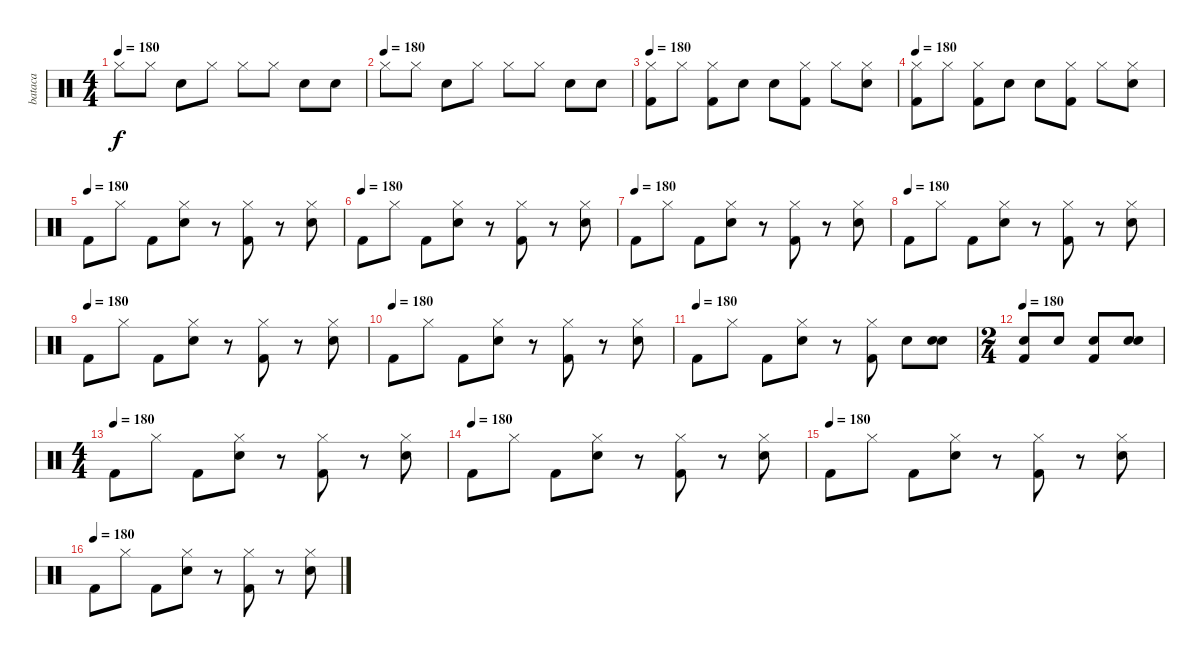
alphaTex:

\track ("bataca" "bataca") {instrument percussion}
\staff {score}
\articulation defaults
\ts (4 4)
\tempo 180
\clef neutral
\ks c "Hi-Hat (closed)".8{dy f} "Hi-Hat (closed)".8 "Snare (hit) 2".8 "Hi-Hat (closed)".8 "Hi-Hat (closed)".8 "Hi-Hat (closed)".8 "Snare (hit) 2".8 "Snare (hit) 2".8
|
\tempo (180)
"Hi-Hat (closed)".8 "Hi-Hat (closed)".8 "Snare (hit) 2".8 "Hi-Hat (closed)".8 "Hi-Hat (closed)".8 "Hi-Hat (closed)".8 "Snare (hit) 2".8 "Snare (hit) 2".8 |
\tempo 180
("Hi-Hat (closed)" "Kick (hit) 2").8 "Hi-Hat (closed)".8 ("Hi-Hat (closed)" "Kick (hit) 2").8 "Snare (hit) 2".8 "Snare (hit) 2".8 ("Hi-Hat (closed)" "Kick (hit) 2").8 "Hi-Hat (closed)".8 ("Hi-Hat (closed)" "Snare (hit) 2").8 |
\tempo 180
("Hi-Hat (closed)" "Kick (hit) 2").8 "Hi-Hat (closed)".8 ("Hi-Hat (closed)" "Kick (hit) 2").8 "Snare (hit) 2".8 "Snare (hit) 2".8 ("Hi-Hat (closed)" "Kick (hit) 2").8 "Hi-Hat (closed)".8 ("Hi-Hat (closed)" "Snare (hit) 2").8 |
\tempo (180)
"Kick (hit) 2".8 "Hi-Hat (closed)".8 "Kick (hit) 2".8 ("Hi-Hat (closed)" "Snare (hit) 2").8 r.8 ("Hi-Hat (closed)" "Kick (hit) 2").8 r.8 ("Hi-Hat (closed)" "Snare (hit) 2").8 |
\tempo (180)
"Kick (hit) 2".8 "Hi-Hat (closed)".8 "Kick (hit) 2".8 ("Hi-Hat (closed)" "Snare (hit) 2").8 r.8 ("Hi-Hat (closed)" "Kick (hit) 2").8 r.8 ("Hi-Hat (closed)" "Snare (hit) 2").8 |
\tempo (180)
"Kick (hit) 2".8 "Hi-Hat (closed)".8 "Kick (hit) 2".8 ("Hi-Hat (closed)" "Snare (hit) 2").8 r.8 ("Hi-Hat (closed)" "Kick (hit) 2").8 r.8 ("Hi-Hat (closed)" "Snare (hit) 2").8 |
\tempo (180)
"Kick (hit) 2".8 "Hi-Hat (closed)".8 "Kick (hit) 2".8 ("Hi-Hat (closed)" "Snare (hit) 2").8 r.8 ("Hi-Hat (closed)" "Kick (hit) 2").8 r.8 ("Hi-Hat (closed)" "Snare (hit) 2").8 |
\tempo (180)
"Kick (hit) 2".8 "Hi-Hat (closed)".8 "Kick (hit) 2".8 ("Hi-Hat (closed)" "Snare (hit) 2").8 r.8 ("Hi-Hat (closed)" "Kick (hit) 2").8 r.8 ("Hi-Hat (closed)" "Snare (hit) 2").8 |
\tempo (180)
"Kick (hit) 2".8 "Hi-Hat (closed)".8 "Kick (hit) 2".8 ("Hi-Hat (closed)" "Snare (hit) 2").8 r.8 ("Hi-Hat (closed)" "Kick (hit) 2").8 r.8 ("Hi-Hat (closed)" "Snare (hit) 2").8 |
\tempo (180)
"Kick (hit) 2".8 "Hi-Hat (closed)".8 "Kick (hit) 2".8 ("Hi-Hat (closed)" "Snare (hit) 2").8 r.8 ("Hi-Hat (closed)" "Kick (hit) 2").8 "Snare (hit) 2".8 ("Snare (hit) 2" "Snare (hit) 2").8 |
\ts (2 4)
\tempo 180
("Snare (hit) 2" "Kick (hit) 2").8 "Snare (hit) 2".8 ("Snare (hit) 2" "Kick (hit) 2").8 ("Snare (hit) 2" "Snare (hit) 2").8 |
\ts (4 4)
\tempo (180)
"Kick (hit) 2".8 "Hi-Hat (closed)".8 "Kick (hit) 2".8 ("Hi-Hat (closed)" "Snare (hit) 2").8 r.8 ("Hi-Hat (closed)" "Kick (hit) 2").8 r.8 ("Hi-Hat (closed)" "Snare (hit) 2").8 |
\tempo (180)
"Kick (hit) 2".8 "Hi-Hat (closed)".8 "Kick (hit) 2".8 ("Hi-Hat (closed)" "Snare (hit) 2").8 r.8 ("Hi-Hat (closed)" "Kick (hit) 2").8 r.8 ("Hi-Hat (closed)" "Snare (hit) 2").8 |
\tempo (180)
"Kick (hit) 2".8 "Hi-Hat (closed)".8 "Kick (hit) 2".8 ("Hi-Hat (closed)" "Snare (hit) 2").8 r.8 ("Hi-Hat (closed)" "Kick (hit) 2").8 r.8 ("Hi-Hat (closed)" "Snare (hit) 2").8 |
\tempo (180)
"Kick (hit) 2".8 "Hi-Hat (closed)".8 "Kick (hit) 2".8 ("Hi-Hat (closed)" "Snare (hit) 2").8 r.8 ("Hi-Hat (closed)" "Kick (hit) 2").8 r.8 ("Hi-Hat (closed)" "Snare (hit) 2").8
